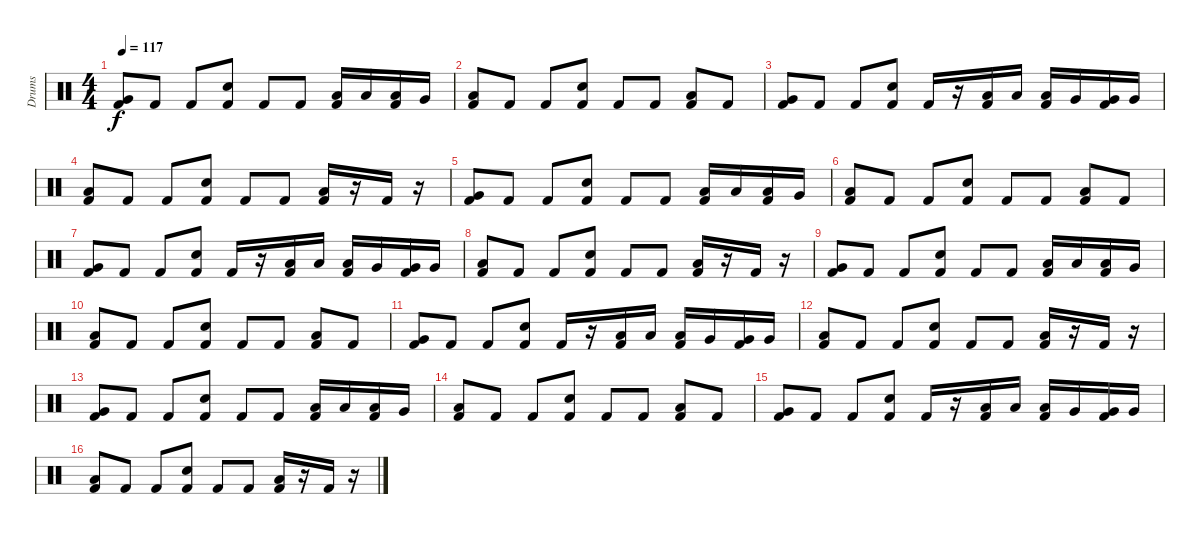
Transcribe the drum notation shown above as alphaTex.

\track ("Drums" "Drums") {instrument percussion}
\staff {score}
\articulation defaults
\ts (4 4)
\tempo 117
\clef neutral
\ks c
("Very Low Tom (hit)" "Kick (hit) 2").8{dy f} "Kick (hit) 2".8 "Kick (hit) 2".8 ("Snare (hit) 2" "Kick (hit) 2").8 "Kick (hit) 2".8 "Kick (hit) 2".8 ("Low Tom (hit)" "Kick (hit) 2").16 "Low Tom (hit)".16 ("Low Tom (hit)" "Kick (hit) 2").16 "Very Low Tom (hit)".16 |
("Low Floor Tom (hit)" "Kick (hit) 2").8 "Kick (hit) 2".8 "Kick (hit) 2".8 ("Snare (hit) 2" "Kick (hit) 2").8 "Kick (hit) 2".8 "Kick (hit) 2".8 ("Low Tom (hit)" "Kick (hit) 2").8 "Kick (hit) 2".8 |
("Very Low Tom (hit)" "Kick (hit) 2").8 "Kick (hit) 2".8 "Kick (hit) 2".8 ("Snare (hit) 2" "Kick (hit) 2").8 "Kick (hit) 2".16 r.16 ("Low Tom (hit)" "Kick (hit) 2").16 "Low Tom (hit)".16 ("Low Tom (hit)" "Kick (hit) 2").16 "Very Low Tom (hit)".16 ("Very Low Tom (hit)" "Kick (hit) 2").16 "Very Low Tom (hit)".16 |
("Low Floor Tom (hit)" "Kick (hit) 2").8 "Kick (hit) 2".8 "Kick (hit) 2".8 ("Snare (hit) 2" "Kick (hit) 2").8 "Kick (hit) 2".8 "Kick (hit) 2".8 ("Low Tom (hit)" "Kick (hit) 2").16 r.16 "Kick (hit) 2".16 r.16 |
("Very Low Tom (hit)" "Kick (hit) 2").8 "Kick (hit) 2".8 "Kick (hit) 2".8 ("Snare (hit) 2" "Kick (hit) 2").8 "Kick (hit) 2".8 "Kick (hit) 2".8 ("Low Tom (hit)" "Kick (hit) 2").16 "Low Tom (hit)".16 ("Low Tom (hit)" "Kick (hit) 2").16 "Very Low Tom (hit)".16 |
("Low Floor Tom (hit)" "Kick (hit) 2").8 "Kick (hit) 2".8 "Kick (hit) 2".8 ("Snare (hit) 2" "Kick (hit) 2").8 "Kick (hit) 2".8 "Kick (hit) 2".8 ("Low Tom (hit)" "Kick (hit) 2").8 "Kick (hit) 2".8 |
("Very Low Tom (hit)" "Kick (hit) 2").8 "Kick (hit) 2".8 "Kick (hit) 2".8 ("Snare (hit) 2" "Kick (hit) 2").8 "Kick (hit) 2".16 r.16 ("Low Tom (hit)" "Kick (hit) 2").16 "Low Tom (hit)".16 ("Low Tom (hit)" "Kick (hit) 2").16 "Very Low Tom (hit)".16 ("Very Low Tom (hit)" "Kick (hit) 2").16 "Very Low Tom (hit)".16 |
("Low Floor Tom (hit)" "Kick (hit) 2").8 "Kick (hit) 2".8 "Kick (hit) 2".8 ("Snare (hit) 2" "Kick (hit) 2").8 "Kick (hit) 2".8 "Kick (hit) 2".8 ("Low Tom (hit)" "Kick (hit) 2").16 r.16 "Kick (hit) 2".16 r.16 |
("Very Low Tom (hit)" "Kick (hit) 2").8 "Kick (hit) 2".8 "Kick (hit) 2".8 ("Snare (hit) 2" "Kick (hit) 2").8 "Kick (hit) 2".8 "Kick (hit) 2".8 ("Low Tom (hit)" "Kick (hit) 2").16 "Low Tom (hit)".16 ("Low Tom (hit)" "Kick (hit) 2").16 "Very Low Tom (hit)".16 |
("Low Floor Tom (hit)" "Kick (hit) 2").8 "Kick (hit) 2".8 "Kick (hit) 2".8 ("Snare (hit) 2" "Kick (hit) 2").8 "Kick (hit) 2".8 "Kick (hit) 2".8 ("Low Tom (hit)" "Kick (hit) 2").8 "Kick (hit) 2".8 |
("Very Low Tom (hit)" "Kick (hit) 2").8 "Kick (hit) 2".8 "Kick (hit) 2".8 ("Snare (hit) 2" "Kick (hit) 2").8 "Kick (hit) 2".16 r.16 ("Low Tom (hit)" "Kick (hit) 2").16 "Low Tom (hit)".16 ("Low Tom (hit)" "Kick (hit) 2").16 "Very Low Tom (hit)".16 ("Very Low Tom (hit)" "Kick (hit) 2").16 "Very Low Tom (hit)".16 |
("Low Floor Tom (hit)" "Kick (hit) 2").8 "Kick (hit) 2".8 "Kick (hit) 2".8 ("Snare (hit) 2" "Kick (hit) 2").8 "Kick (hit) 2".8 "Kick (hit) 2".8 ("Low Tom (hit)" "Kick (hit) 2").16 r.16 "Kick (hit) 2".16 r.16 |
("Very Low Tom (hit)" "Kick (hit) 2").8 "Kick (hit) 2".8 "Kick (hit) 2".8 ("Snare (hit) 2" "Kick (hit) 2").8 "Kick (hit) 2".8 "Kick (hit) 2".8 ("Low Tom (hit)" "Kick (hit) 2").16 "Low Tom (hit)".16 ("Low Tom (hit)" "Kick (hit) 2").16 "Very Low Tom (hit)".16 |
("Low Floor Tom (hit)" "Kick (hit) 2").8 "Kick (hit) 2".8 "Kick (hit) 2".8 ("Snare (hit) 2" "Kick (hit) 2").8 "Kick (hit) 2".8 "Kick (hit) 2".8 ("Low Tom (hit)" "Kick (hit) 2").8 "Kick (hit) 2".8 |
("Very Low Tom (hit)" "Kick (hit) 2").8 "Kick (hit) 2".8 "Kick (hit) 2".8 ("Snare (hit) 2" "Kick (hit) 2").8 "Kick (hit) 2".16 r.16 ("Low Tom (hit)" "Kick (hit) 2").16 "Low Tom (hit)".16 ("Low Tom (hit)" "Kick (hit) 2").16 "Very Low Tom (hit)".16 ("Very Low Tom (hit)" "Kick (hit) 2").16 "Very Low Tom (hit)".16 |
("Low Floor Tom (hit)" "Kick (hit) 2").8 "Kick (hit) 2".8 "Kick (hit) 2".8 ("Snare (hit) 2" "Kick (hit) 2").8 "Kick (hit) 2".8 "Kick (hit) 2".8 ("Low Tom (hit)" "Kick (hit) 2").16 r.16 "Kick (hit) 2".16 r.16
